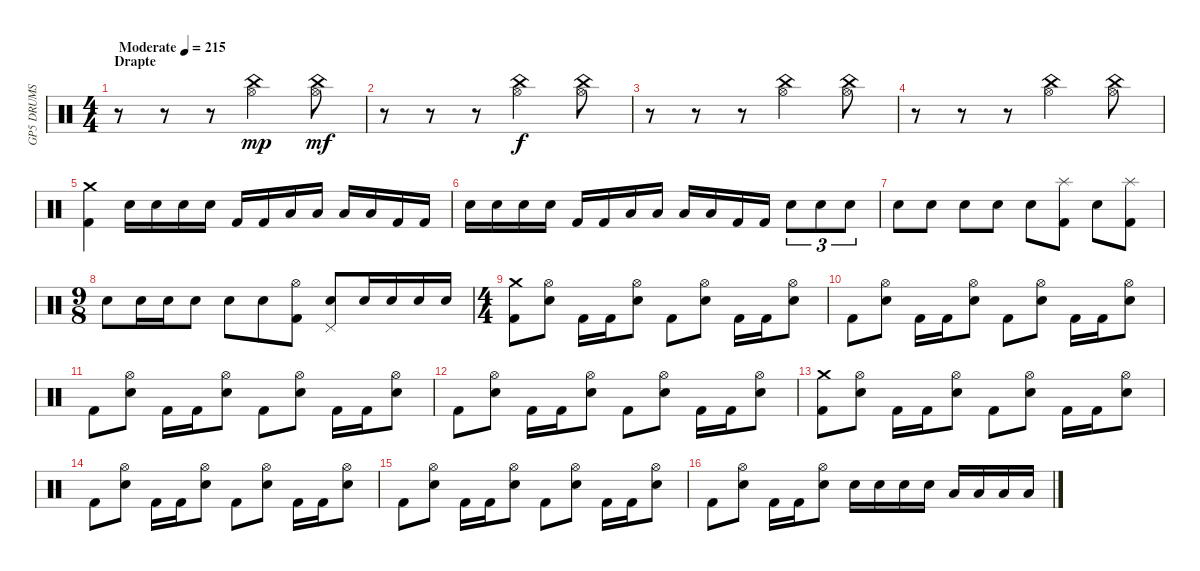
\track ("GP5 DRUMS" "GP5 DRUMS") {instrument percussion}
\staff {score}
\articulation defaults
\ts (4 4)
\section ("" "Drapte")
\tempo (215 "Moderate")
\clef neutral
\ks c
r.8{dy mp} r.8 r.8 ("China (hit)" "Hi-Hat (open)").2 ("China (hit)" "Hi-Hat (open)").8{dy mf} |
r.8 r.8 r.8 ("China (hit)" "Hi-Hat (open)").2{dy f} ("China (hit)" "Hi-Hat (open)").8 |
r.8 r.8 r.8 ("China (hit)" "Hi-Hat (open)").2 ("China (hit)" "Hi-Hat (open)").8 |
r.8 r.8 r.8 ("China (hit)" "Hi-Hat (open)").2 ("China (hit)" "Hi-Hat (open)").8 |
("Crash medium (hit)" "Kick (hit) 2").4 "Electric Snare (hit)".16 "Electric Snare (hit)".16 "Electric Snare (hit)".16 "Electric Snare (hit)".16 "Kick (hit) 2".16 "Kick (hit) 2".16 "Low Tom (hit)".16 "Low Tom (hit)".16 "Low Tom (hit)".16 "Low Tom (hit)".16 "Kick (hit) 2".16 "Kick (hit) 2".16 |
"Electric Snare (hit)".16 "Electric Snare (hit)".16 "Electric Snare (hit)".16 "Electric Snare (hit)".16 "Kick (hit) 2".16 "Kick (hit) 2".16 "Low Tom (hit)".16 "Low Tom (hit)".16 "Low Tom (hit)".16 "Low Tom (hit)".16 "Kick (hit) 2".16 "Kick (hit) 2".16 "Electric Snare (hit)".8{tu (3 2)} "Electric Snare (hit)".8{tu (3 2)} "Electric Snare (hit)".8{tu (3 2)} |
"Electric Snare (hit)".8 "Electric Snare (hit)".8 "Electric Snare (hit)".8 "Electric Snare (hit)".8 "Electric Snare (hit)".8 ("Splash (hit)" "Kick (hit) 2").8 "Electric Snare (hit)".8 ("Splash (hit)" "Kick (hit) 2").8 |
\ts (9 8)
"Electric Snare (hit)".8 "Electric Snare (hit)".16 "Electric Snare (hit)".16 "Electric Snare (hit)".8 "Electric Snare (hit)".8 "Electric Snare (hit)".8 ("Hi-Hat (open)" "Kick (hit) 2").8 ("Pedal Hi-Hat (hit)" "Electric Snare (hit)").8 "Electric Snare (hit)".16 "Electric Snare (hit)".16 "Electric Snare (hit)".16 "Electric Snare (hit)".16 |
\ts (4 4)
("Crash medium (hit)" "Kick (hit) 2").8 ("Hi-Hat (open)" "Electric Snare (hit)").8 "Kick (hit) 2".16 "Kick (hit) 2".16 ("Hi-Hat (open)" "Electric Snare (hit)").8 "Kick (hit) 2".8 ("Hi-Hat (open)" "Electric Snare (hit)").8 "Kick (hit) 2".16 "Kick (hit) 2".16 ("Hi-Hat (open)" "Electric Snare (hit)").8 |
"Kick (hit) 2".8 ("Hi-Hat (open)" "Electric Snare (hit)").8 "Kick (hit) 2".16 "Kick (hit) 2".16 ("Hi-Hat (open)" "Electric Snare (hit)").8 "Kick (hit) 2".8 ("Hi-Hat (open)" "Electric Snare (hit)").8 "Kick (hit) 2".16 "Kick (hit) 2".16 ("Hi-Hat (open)" "Electric Snare (hit)").8 |
"Kick (hit) 2".8 ("Hi-Hat (open)" "Electric Snare (hit)").8 "Kick (hit) 2".16 "Kick (hit) 2".16 ("Hi-Hat (open)" "Electric Snare (hit)").8 "Kick (hit) 2".8 ("Hi-Hat (open)" "Electric Snare (hit)").8 "Kick (hit) 2".16 "Kick (hit) 2".16 ("Hi-Hat (open)" "Electric Snare (hit)").8 |
"Kick (hit) 2".8 ("Hi-Hat (open)" "Electric Snare (hit)").8 "Kick (hit) 2".16 "Kick (hit) 2".16 ("Hi-Hat (open)" "Electric Snare (hit)").8 "Kick (hit) 2".8 ("Hi-Hat (open)" "Electric Snare (hit)").8 "Kick (hit) 2".16 "Kick (hit) 2".16 ("Hi-Hat (open)" "Electric Snare (hit)").8 |
("Crash medium (hit)" "Kick (hit) 2").8 ("Hi-Hat (open)" "Electric Snare (hit)").8 "Kick (hit) 2".16 "Kick (hit) 2".16 ("Hi-Hat (open)" "Electric Snare (hit)").8 "Kick (hit) 2".8 ("Hi-Hat (open)" "Electric Snare (hit)").8 "Kick (hit) 2".16 "Kick (hit) 2".16 ("Hi-Hat (open)" "Electric Snare (hit)").8 |
"Kick (hit) 2".8 ("Hi-Hat (open)" "Electric Snare (hit)").8 "Kick (hit) 2".16 "Kick (hit) 2".16 ("Hi-Hat (open)" "Electric Snare (hit)").8 "Kick (hit) 2".8 ("Hi-Hat (open)" "Electric Snare (hit)").8 "Kick (hit) 2".16 "Kick (hit) 2".16 ("Hi-Hat (open)" "Electric Snare (hit)").8 |
"Kick (hit) 2".8 ("Hi-Hat (open)" "Electric Snare (hit)").8 "Kick (hit) 2".16 "Kick (hit) 2".16 ("Hi-Hat (open)" "Electric Snare (hit)").8 "Kick (hit) 2".8 ("Hi-Hat (open)" "Electric Snare (hit)").8 "Kick (hit) 2".16 "Kick (hit) 2".16 ("Hi-Hat (open)" "Electric Snare (hit)").8 |
"Kick (hit) 2".8 ("Hi-Hat (open)" "Electric Snare (hit)").8 "Kick (hit) 2".16 "Kick (hit) 2".16 ("Hi-Hat (open)" "Electric Snare (hit)").8 "Electric Snare (hit)".16 "Electric Snare (hit)".16 "Electric Snare (hit)".16 "Electric Snare (hit)".16 "Low Tom (hit)".16 "Low Tom (hit)".16 "Low Tom (hit)".16 "Low Tom (hit)".16
